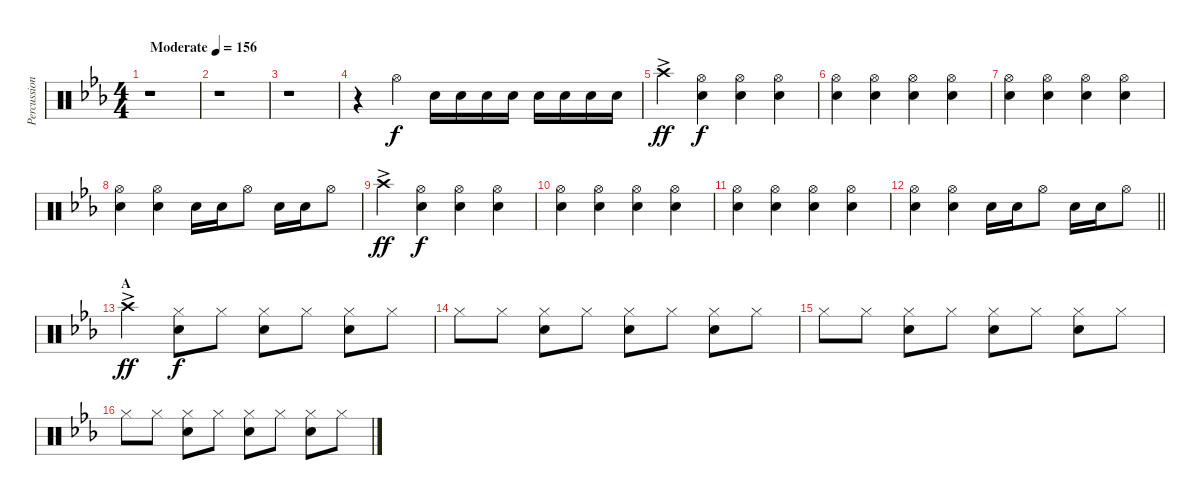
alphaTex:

\track ("Percussion hand" "Percussion") {instrument percussion}
\staff {score}
\articulation defaults
\ts (4 4)
\tempo (156 "Moderate")
\clef neutral
\ks eb
r.1{dy f} |
r.1 |
r.1 |
r.4 "Hi-Hat (open)".4 "Snare (hit) 2".16 "Snare (hit) 2".16 "Snare (hit) 2".16 "Snare (hit) 2".16 "Snare (hit) 2".16 "Snare (hit) 2".16 "Snare (hit) 2".16 "Snare (hit) 2".16 |
"Crash high (hit)"{ac}.4{dy ff} ("Hi-Hat (open)" "Snare (hit) 2").4{dy f} ("Hi-Hat (open)" "Snare (hit) 2").4 ("Hi-Hat (open)" "Snare (hit) 2").4 |
("Hi-Hat (open)" "Snare (hit) 2").4 ("Hi-Hat (open)" "Snare (hit) 2").4 ("Hi-Hat (open)" "Snare (hit) 2").4 ("Hi-Hat (open)" "Snare (hit) 2").4 |
("Hi-Hat (open)" "Snare (hit) 2").4 ("Hi-Hat (open)" "Snare (hit) 2").4 ("Hi-Hat (open)" "Snare (hit) 2").4 ("Hi-Hat (open)" "Snare (hit) 2").4 |
("Hi-Hat (open)" "Snare (hit) 2").4 ("Hi-Hat (open)" "Snare (hit) 2").4 "Snare (hit) 2".16 "Snare (hit) 2".16 "Hi-Hat (open)".8 "Snare (hit) 2".16 "Snare (hit) 2".16 "Hi-Hat (open)".8 |
"Crash high (hit)"{ac}.4{dy ff} ("Hi-Hat (open)" "Snare (hit) 2").4{dy f} ("Hi-Hat (open)" "Snare (hit) 2").4 ("Hi-Hat (open)" "Snare (hit) 2").4 |
("Hi-Hat (open)" "Snare (hit) 2").4 ("Hi-Hat (open)" "Snare (hit) 2").4 ("Hi-Hat (open)" "Snare (hit) 2").4 ("Hi-Hat (open)" "Snare (hit) 2").4 |
("Hi-Hat (open)" "Snare (hit) 2").4 ("Hi-Hat (open)" "Snare (hit) 2").4 ("Hi-Hat (open)" "Snare (hit) 2").4 ("Hi-Hat (open)" "Snare (hit) 2").4 |
\barLineRight lightlight
("Hi-Hat (open)" "Snare (hit) 2").4 ("Hi-Hat (open)" "Snare (hit) 2").4 "Snare (hit) 2".16 "Snare (hit) 2".16 "Hi-Hat (open)".8 "Snare (hit) 2".16 "Snare (hit) 2".16 "Hi-Hat (open)".8 |
\section ("" "A")
"Crash high (hit)"{ac}.4{dy ff} ("Hi-Hat (closed)" "Snare (hit) 2").8{dy f} "Hi-Hat (closed)".8 ("Hi-Hat (closed)" "Snare (hit) 2").8 "Hi-Hat (closed)".8 ("Hi-Hat (closed)" "Snare (hit) 2").8 "Hi-Hat (closed)".8 |
"Hi-Hat (closed)".8 "Hi-Hat (closed)".8 ("Hi-Hat (closed)" "Snare (hit) 2").8 "Hi-Hat (closed)".8 ("Hi-Hat (closed)" "Snare (hit) 2").8 "Hi-Hat (closed)".8 ("Hi-Hat (closed)" "Snare (hit) 2").8 "Hi-Hat (closed)".8 |
"Hi-Hat (closed)".8 "Hi-Hat (closed)".8 ("Hi-Hat (closed)" "Snare (hit) 2").8 "Hi-Hat (closed)".8 ("Hi-Hat (closed)" "Snare (hit) 2").8 "Hi-Hat (closed)".8 ("Hi-Hat (closed)" "Snare (hit) 2").8 "Hi-Hat (closed)".8 |
"Hi-Hat (closed)".8 "Hi-Hat (closed)".8 ("Hi-Hat (closed)" "Snare (hit) 2").8 "Hi-Hat (closed)".8 ("Hi-Hat (closed)" "Snare (hit) 2").8 "Hi-Hat (closed)".8 ("Hi-Hat (closed)" "Snare (hit) 2").8 "Hi-Hat (closed)".8
